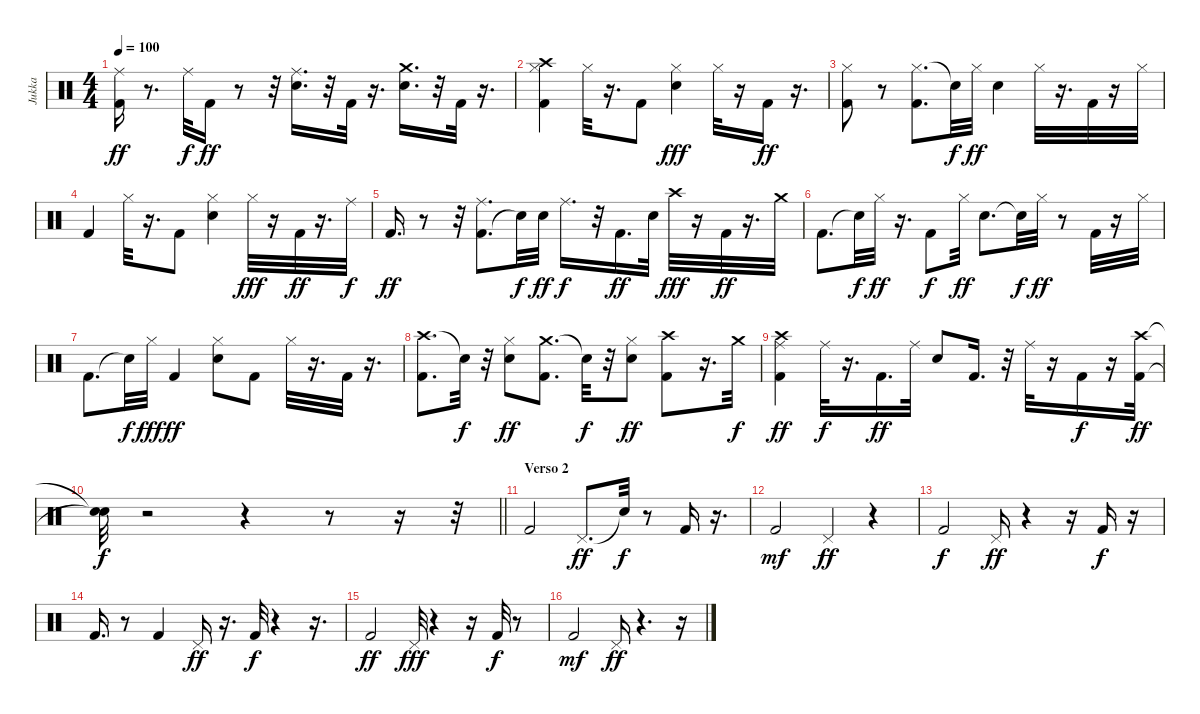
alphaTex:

\track ("Jukka" "Jukka") {instrument percussion}
\staff {score}
\articulation defaults
\ts (4 4)
\tempo 100
\clef neutral
\ks c
("Ride (middle)" "Kick (hit) 2").16{dy ff} r.8{d} "Ride (middle)".32{dy f} "Kick (hit) 2".16{dy ff} r.8 r.32 ("Electric Snare (hit)" "Ride (middle)").16{d} r.32 "Kick (hit) 2".32 r.16{d} ("Crash medium (hit)" "Electric Snare (hit)").16{d} r.32 "Kick (hit) 2".32 r.16{d} |
("Crash high (hit)" "Hi-Hat (closed)" "Kick (hit) 2").4 "Hi-Hat (closed)".32 r.16{d} "Kick (hit) 2".8 ("Electric Snare (hit)" "Hi-Hat (closed)").4{dy fff} "Hi-Hat (closed)".32 r.16 "Kick (hit) 2".16{dy ff} r.16{d} |
("Hi-Hat (closed)" "Kick (hit) 2").8 r.8 ("Hi-Hat (closed)" "Kick (hit) 2").8{d} "Snare (hit)"{t}.32{dy f} "Hi-Hat (closed)".32{dy ff} "Electric Snare (hit)".4 "Hi-Hat (closed)".32 r.16{d} "Kick (hit) 2".32 r.16 "Hi-Hat (closed)".32 |
"Kick (hit) 2".4 "Hi-Hat (closed)".32 r.16{d} "Kick (hit) 2".8 ("Hi-Hat (closed)" "Electric Snare (hit)").4 "Hi-Hat (closed)".32{dy fff} r.16 "Kick (hit) 2".32{dy ff} r.16{d} "Ride (middle)".32{dy f} |
"Kick (hit) 2".16{d dy ff} r.8 r.32 ("Kick (hit) 2" "Ride (middle)").8{d} "Snare (hit)"{t}.32{dy f} "Electric Snare (hit)".32{dy ff} "Ride (middle)".16{d dy f} r.32 "Kick (hit) 2".16{d dy ff} "Electric Snare (hit)".32 "Crash high (hit)".32{dy fff} r.16 "Kick (hit) 2".32{dy ff} r.16{d} "Crash medium (hit)".32 |
"Kick (hit) 2".8{d} "Snare (hit)"{t}.32{dy f} "Hi-Hat (closed)".32{dy ff} r.16{d} "Kick (hit) 2".8{dy f} "Hi-Hat (closed)".32{dy ff} "Electric Snare (hit)".8{d} "Snare (hit)"{t}.32{dy f} "Hi-Hat (closed)".32{dy ff} r.8 "Kick (hit) 2".32 r.16 "Hi-Hat (closed)".32 |
"Kick (hit) 2".8{d} "Snare (hit)"{t}.32{dy f} "Hi-Hat (closed)".32{dy fff} "Kick (hit) 2".4{dy ff} ("Hi-Hat (closed)" "Electric Snare (hit)").8 "Kick (hit) 2".8 "Hi-Hat (closed)".32 r.16{d} "Kick (hit) 2".32 r.16{d} |
("Crash high (hit)" "Kick (hit) 2").8{d} "Snare (hit)"{t}.32{dy f} r.32 ("Hi-Hat (closed)" "Electric Snare (hit)").8{dy ff} ("Crash medium (hit)" "Kick (hit) 2").8{d} "Snare (hit)"{t}.32{dy f} r.32 ("Hi-Hat (closed)" "Electric Snare (hit)").8{dy ff} ("Crash high (hit)" "Kick (hit) 2").8 r.16{d} "Crash medium (hit)".32{dy f} |
("Crash high (hit)" "Ride (middle)" "Kick (hit) 2").4{dy ff} "Ride (middle)".32{dy f} r.16{d} "Kick (hit) 2".16{d dy ff} "Ride (middle)".32 "Electric Snare (hit)".8 "Kick (hit) 2".16{d} r.32 "Ride (middle)".32 r.16 "Kick (hit) 2".16{dy f} r.16 ("Crash high (hit)" "Kick (hit) 2").32{dy ff} |
\barLineRight lightlight
("Snare (hit)"{t} "Snare (hit)"{t}).32{dy f} r.2 r.4 r.8 r.16 r.32 |
\section ("" "Verso 2")
"Kick (hit) 2".2 "Pedal Hi-Hat (hit)".8{d dy ff} "Snare (hit)"{t}.32{dy f} r.8 "Kick (hit) 2".16 r.16{d} |
"Kick (hit) 2".2{dy mf} "Pedal Hi-Hat (hit)".4{dy ff} r.4 |
"Kick (hit) 2".2{dy f} "Pedal Hi-Hat (hit)".16{dy ff} r.4 r.16 "Kick (hit) 2".16{dy f} r.16 |
"Kick (hit) 2".16{d} r.8 "Kick (hit) 2".4 "Pedal Hi-Hat (hit)".16{dy ff} r.16{d} "Kick (hit) 2".32{dy f} r.4 r.16{d} |
"Kick (hit) 2".2{dy ff} "Pedal Hi-Hat (hit)".32{dy fff} r.4 r.16 "Kick (hit) 2".32{dy f} r.8 |
"Kick (hit) 2".2{dy mf} "Pedal Hi-Hat (hit)".16{dy ff} r.4{d} r.16
